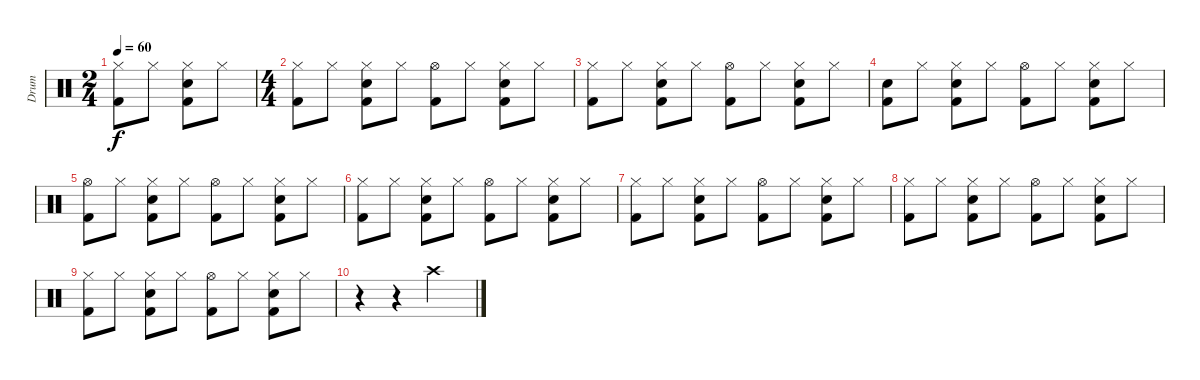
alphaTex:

\track ("Drum" "Drum") {instrument percussion}
\staff {score}
\articulation defaults
\ts (2 4)
\tempo 60
\clef neutral
\ks c
("Hi-Hat (closed)" "Kick (hit) 2").8{dy f} "Hi-Hat (closed)".8 ("Hi-Hat (closed)" "Snare (hit) 2" "Kick (hit) 2").8 "Hi-Hat (closed)".8 |
\ts (4 4)
("Hi-Hat (closed)" "Kick (hit) 2").8 "Hi-Hat (closed)".8 ("Hi-Hat (closed)" "Snare (hit) 2" "Kick (hit) 2").8 "Hi-Hat (closed)".8 ("Hi-Hat (open)" "Kick (hit) 2").8 "Hi-Hat (closed)".8 ("Snare (hit) 2" "Hi-Hat (closed)" "Kick (hit) 2").8 "Hi-Hat (closed)".8 |
("Hi-Hat (closed)" "Kick (hit) 2").8 "Hi-Hat (closed)".8 ("Hi-Hat (closed)" "Snare (hit) 2" "Kick (hit) 2").8 "Hi-Hat (closed)".8 ("Hi-Hat (open)" "Kick (hit) 2").8 "Hi-Hat (closed)".8 ("Snare (hit) 2" "Hi-Hat (closed)" "Kick (hit) 2").8 "Hi-Hat (closed)".8 |
("Snare (hit) 2" "Kick (hit) 2").8 "Hi-Hat (closed)".8 ("Hi-Hat (closed)" "Snare (hit) 2" "Kick (hit) 2").8 "Hi-Hat (closed)".8 ("Hi-Hat (open)" "Kick (hit) 2").8 "Hi-Hat (closed)".8 ("Snare (hit) 2" "Hi-Hat (closed)" "Kick (hit) 2").8 "Hi-Hat (closed)".8 |
("Hi-Hat (open)" "Kick (hit) 2").8 "Hi-Hat (closed)".8 ("Snare (hit) 2" "Hi-Hat (closed)" "Kick (hit) 2").8 "Hi-Hat (closed)".8 ("Hi-Hat (open)" "Kick (hit) 2").8 "Hi-Hat (closed)".8 ("Snare (hit) 2" "Hi-Hat (closed)" "Kick (hit) 2").8 "Hi-Hat (closed)".8 |
("Hi-Hat (closed)" "Kick (hit) 2").8 "Hi-Hat (closed)".8 ("Hi-Hat (closed)" "Snare (hit) 2" "Kick (hit) 2").8 "Hi-Hat (closed)".8 ("Hi-Hat (open)" "Kick (hit) 2").8 "Hi-Hat (closed)".8 ("Snare (hit) 2" "Hi-Hat (closed)" "Kick (hit) 2").8 "Hi-Hat (closed)".8 |
("Hi-Hat (closed)" "Kick (hit) 2").8 "Hi-Hat (closed)".8 ("Hi-Hat (closed)" "Snare (hit) 2" "Kick (hit) 2").8 "Hi-Hat (closed)".8 ("Hi-Hat (open)" "Kick (hit) 2").8 "Hi-Hat (closed)".8 ("Snare (hit) 2" "Hi-Hat (closed)" "Kick (hit) 2").8 "Hi-Hat (closed)".8 |
("Hi-Hat (closed)" "Kick (hit) 2").8 "Hi-Hat (closed)".8 ("Hi-Hat (closed)" "Snare (hit) 2" "Kick (hit) 2").8 "Hi-Hat (closed)".8 ("Hi-Hat (open)" "Kick (hit) 2").8 "Hi-Hat (closed)".8 ("Snare (hit) 2" "Hi-Hat (closed)" "Kick (hit) 2").8 "Hi-Hat (closed)".8 |
("Hi-Hat (closed)" "Kick (hit) 2").8 "Hi-Hat (closed)".8 ("Hi-Hat (closed)" "Snare (hit) 2" "Kick (hit) 2").8 "Hi-Hat (closed)".8 ("Hi-Hat (open)" "Kick (hit) 2").8 "Hi-Hat (closed)".8 ("Snare (hit) 2" "Hi-Hat (closed)" "Kick (hit) 2").8 "Hi-Hat (closed)".8 |
r.4 r.4 "Crash high (hit)".2
